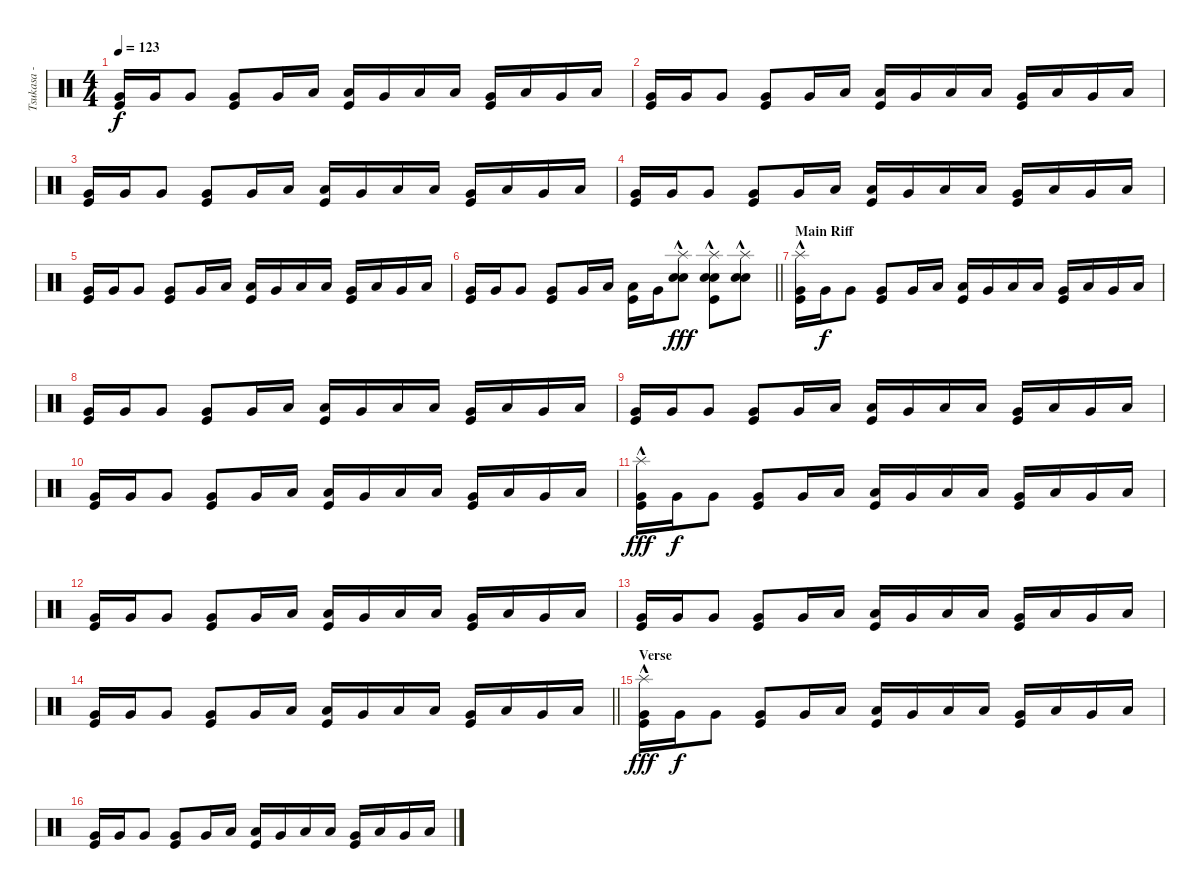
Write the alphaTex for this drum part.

\track ("Tsukasa - Drums" "Tsukasa - ") {instrument percussion}
\staff {score}
\articulation defaults
\ts (4 4)
\tempo 123
\clef neutral
\ks c
("Very Low Tom (hit)" "Kick (hit)").16{dy f} "Very Low Tom (hit)".16 "Very Low Tom (hit)".8 ("Very Low Tom (hit)" "Kick (hit)").8 "Very Low Tom (hit)".16 "Low Tom (hit)".16 ("Low Tom (hit)" "Kick (hit)").16 "Very Low Tom (hit)".16 "Low Floor Tom (hit)".16 "Low Floor Tom (hit)".16 ("Very Low Tom (hit)" "Kick (hit)").16 "Low Floor Tom (hit)".16 "Very Low Tom (hit)".16 "Low Floor Tom (hit)".16 |
("Very Low Tom (hit)" "Kick (hit)").16 "Very Low Tom (hit)".16 "Very Low Tom (hit)".8 ("Very Low Tom (hit)" "Kick (hit)").8 "Very Low Tom (hit)".16 "Low Tom (hit)".16 ("Low Tom (hit)" "Kick (hit)").16 "Very Low Tom (hit)".16 "Low Floor Tom (hit)".16 "Low Floor Tom (hit)".16 ("Very Low Tom (hit)" "Kick (hit)").16 "Low Floor Tom (hit)".16 "Very Low Tom (hit)".16 "Low Floor Tom (hit)".16 |
("Very Low Tom (hit)" "Kick (hit)").16 "Very Low Tom (hit)".16 "Very Low Tom (hit)".8 ("Very Low Tom (hit)" "Kick (hit)").8 "Very Low Tom (hit)".16 "Low Tom (hit)".16 ("Low Tom (hit)" "Kick (hit)").16 "Very Low Tom (hit)".16 "Low Floor Tom (hit)".16 "Low Floor Tom (hit)".16 ("Very Low Tom (hit)" "Kick (hit)").16 "Low Floor Tom (hit)".16 "Very Low Tom (hit)".16 "Low Floor Tom (hit)".16 |
("Very Low Tom (hit)" "Kick (hit)").16 "Very Low Tom (hit)".16 "Very Low Tom (hit)".8 ("Very Low Tom (hit)" "Kick (hit)").8 "Very Low Tom (hit)".16 "Low Tom (hit)".16 ("Low Tom (hit)" "Kick (hit)").16 "Very Low Tom (hit)".16 "Low Floor Tom (hit)".16 "Low Floor Tom (hit)".16 ("Very Low Tom (hit)" "Kick (hit)").16 "Low Floor Tom (hit)".16 "Very Low Tom (hit)".16 "Low Floor Tom (hit)".16 |
("Very Low Tom (hit)" "Kick (hit)").16 "Very Low Tom (hit)".16 "Very Low Tom (hit)".8 ("Very Low Tom (hit)" "Kick (hit)").8 "Very Low Tom (hit)".16 "Low Tom (hit)".16 ("Low Tom (hit)" "Kick (hit)").16 "Very Low Tom (hit)".16 "Low Floor Tom (hit)".16 "Low Floor Tom (hit)".16 ("Very Low Tom (hit)" "Kick (hit)").16 "Low Floor Tom (hit)".16 "Very Low Tom (hit)".16 "Low Floor Tom (hit)".16 |
\barLineRight lightlight
("Very Low Tom (hit)" "Kick (hit)").16 "Very Low Tom (hit)".16 "Very Low Tom (hit)".8 ("Very Low Tom (hit)" "Kick (hit)").8 "Very Low Tom (hit)".16 "Low Tom (hit)".16 ("Low Tom (hit)" "Kick (hit)").16 "Very Low Tom (hit)".16 ("Splash (hit)" "Electric Snare (hit)"{hac} "Snare (hit) 2").8{dy fff} ("Splash (hit)" "Electric Snare (hit)"{hac} "Snare (hit) 2" "Kick (hit)").8 ("Splash (hit)" "Electric Snare (hit)"{hac} "Snare (hit) 2").8 |
\section ("" "Main Riff")
("Splash (hit)"{hac} "Very Low Tom (hit)" "Kick (hit)").16 "Very Low Tom (hit)".16{dy f} "Very Low Tom (hit)".8 ("Very Low Tom (hit)" "Kick (hit)").8 "Very Low Tom (hit)".16 "Low Tom (hit)".16 ("Low Tom (hit)" "Kick (hit)").16 "Very Low Tom (hit)".16 "Low Floor Tom (hit)".16 "Low Floor Tom (hit)".16 ("Very Low Tom (hit)" "Kick (hit)").16 "Low Floor Tom (hit)".16 "Very Low Tom (hit)".16 "Low Floor Tom (hit)".16 |
("Very Low Tom (hit)" "Kick (hit)").16 "Very Low Tom (hit)".16 "Very Low Tom (hit)".8 ("Very Low Tom (hit)" "Kick (hit)").8 "Very Low Tom (hit)".16 "Low Tom (hit)".16 ("Low Tom (hit)" "Kick (hit)").16 "Very Low Tom (hit)".16 "Low Floor Tom (hit)".16 "Low Floor Tom (hit)".16 ("Very Low Tom (hit)" "Kick (hit)").16 "Low Floor Tom (hit)".16 "Very Low Tom (hit)".16 "Low Floor Tom (hit)".16 |
("Very Low Tom (hit)" "Kick (hit)").16 "Very Low Tom (hit)".16 "Very Low Tom (hit)".8 ("Very Low Tom (hit)" "Kick (hit)").8 "Very Low Tom (hit)".16 "Low Tom (hit)".16 ("Low Tom (hit)" "Kick (hit)").16 "Very Low Tom (hit)".16 "Low Floor Tom (hit)".16 "Low Floor Tom (hit)".16 ("Very Low Tom (hit)" "Kick (hit)").16 "Low Floor Tom (hit)".16 "Very Low Tom (hit)".16 "Low Floor Tom (hit)".16 |
("Very Low Tom (hit)" "Kick (hit)").16 "Very Low Tom (hit)".16 "Very Low Tom (hit)".8 ("Very Low Tom (hit)" "Kick (hit)").8 "Very Low Tom (hit)".16 "Low Tom (hit)".16 ("Low Tom (hit)" "Kick (hit)").16 "Very Low Tom (hit)".16 "Low Floor Tom (hit)".16 "Low Floor Tom (hit)".16 ("Very Low Tom (hit)" "Kick (hit)").16 "Low Floor Tom (hit)".16 "Very Low Tom (hit)".16 "Low Floor Tom (hit)".16 |
("Splash (hit)"{hac} "Very Low Tom (hit)" "Kick (hit)").16{dy fff} "Very Low Tom (hit)".16{dy f} "Very Low Tom (hit)".8 ("Very Low Tom (hit)" "Kick (hit)").8 "Very Low Tom (hit)".16 "Low Tom (hit)".16 ("Low Tom (hit)" "Kick (hit)").16 "Very Low Tom (hit)".16 "Low Floor Tom (hit)".16 "Low Floor Tom (hit)".16 ("Very Low Tom (hit)" "Kick (hit)").16 "Low Floor Tom (hit)".16 "Very Low Tom (hit)".16 "Low Floor Tom (hit)".16 |
("Very Low Tom (hit)" "Kick (hit)").16 "Very Low Tom (hit)".16 "Very Low Tom (hit)".8 ("Very Low Tom (hit)" "Kick (hit)").8 "Very Low Tom (hit)".16 "Low Tom (hit)".16 ("Low Tom (hit)" "Kick (hit)").16 "Very Low Tom (hit)".16 "Low Floor Tom (hit)".16 "Low Floor Tom (hit)".16 ("Very Low Tom (hit)" "Kick (hit)").16 "Low Floor Tom (hit)".16 "Very Low Tom (hit)".16 "Low Floor Tom (hit)".16 |
("Very Low Tom (hit)" "Kick (hit)").16 "Very Low Tom (hit)".16 "Very Low Tom (hit)".8 ("Very Low Tom (hit)" "Kick (hit)").8 "Very Low Tom (hit)".16 "Low Tom (hit)".16 ("Low Tom (hit)" "Kick (hit)").16 "Very Low Tom (hit)".16 "Low Floor Tom (hit)".16 "Low Floor Tom (hit)".16 ("Very Low Tom (hit)" "Kick (hit)").16 "Low Floor Tom (hit)".16 "Very Low Tom (hit)".16 "Low Floor Tom (hit)".16 |
\barLineRight lightlight
("Very Low Tom (hit)" "Kick (hit)").16 "Very Low Tom (hit)".16 "Very Low Tom (hit)".8 ("Very Low Tom (hit)" "Kick (hit)").8 "Very Low Tom (hit)".16 "Low Tom (hit)".16 ("Low Tom (hit)" "Kick (hit)").16 "Very Low Tom (hit)".16 "Low Floor Tom (hit)".16 "Low Floor Tom (hit)".16 ("Very Low Tom (hit)" "Kick (hit)").16 "Low Floor Tom (hit)".16 "Very Low Tom (hit)".16 "Low Floor Tom (hit)".16 |
\section ("" "Verse")
("Splash (hit)"{hac} "Very Low Tom (hit)" "Kick (hit)").16{dy fff} "Very Low Tom (hit)".16{dy f} "Very Low Tom (hit)".8 ("Very Low Tom (hit)" "Kick (hit)").8 "Very Low Tom (hit)".16 "Low Tom (hit)".16 ("Low Tom (hit)" "Kick (hit)").16 "Very Low Tom (hit)".16 "Low Floor Tom (hit)".16 "Low Floor Tom (hit)".16 ("Very Low Tom (hit)" "Kick (hit)").16 "Low Floor Tom (hit)".16 "Very Low Tom (hit)".16 "Low Floor Tom (hit)".16 |
("Very Low Tom (hit)" "Kick (hit)").16 "Very Low Tom (hit)".16 "Very Low Tom (hit)".8 ("Very Low Tom (hit)" "Kick (hit)").8 "Very Low Tom (hit)".16 "Low Tom (hit)".16 ("Low Tom (hit)" "Kick (hit)").16 "Very Low Tom (hit)".16 "Low Floor Tom (hit)".16 "Low Floor Tom (hit)".16 ("Very Low Tom (hit)" "Kick (hit)").16 "Low Floor Tom (hit)".16 "Very Low Tom (hit)".16 "Low Floor Tom (hit)".16
